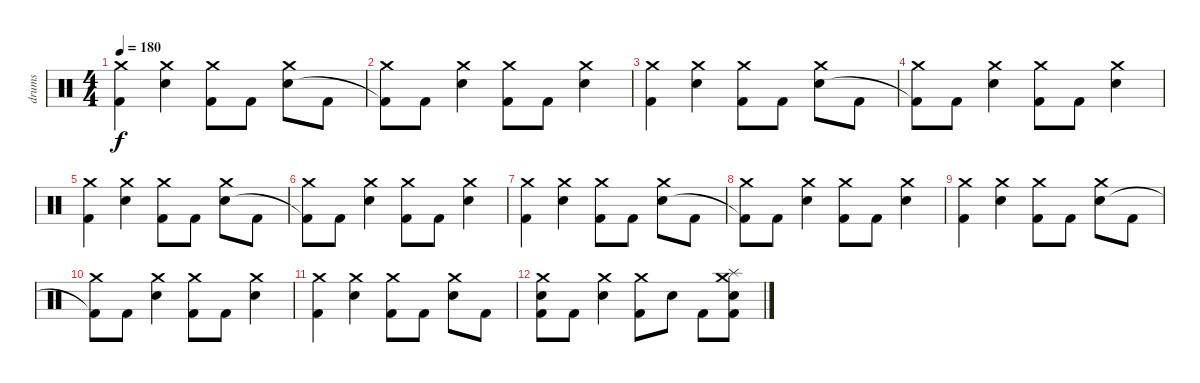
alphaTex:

\track ("drums" "drums") {instrument percussion}
\staff {score}
\articulation defaults
\ts (4 4)
\tempo 180
\clef neutral
\ks c
("Crash medium (hit)" "Kick (hit) 2").4{dy f} ("Crash medium (hit)" "Electric Snare (hit)").4 ("Crash medium (hit)" "Kick (hit) 2").8 "Kick (hit) 2".8 ("Crash medium (hit)" "Electric Snare (hit)").8 "Kick (hit) 2".8 |
("Crash medium (hit)" "Kick (hit) 2"{t}).8 "Kick (hit) 2".8 ("Crash medium (hit)" "Electric Snare (hit)").4 ("Crash medium (hit)" "Kick (hit) 2").8 "Kick (hit) 2".8 ("Crash medium (hit)" "Electric Snare (hit)").4 |
("Crash medium (hit)" "Kick (hit) 2").4 ("Crash medium (hit)" "Electric Snare (hit)").4 ("Crash medium (hit)" "Kick (hit) 2").8 "Kick (hit) 2".8 ("Crash medium (hit)" "Electric Snare (hit)").8 "Kick (hit) 2".8 |
("Crash medium (hit)" "Kick (hit) 2"{t}).8 "Kick (hit) 2".8 ("Crash medium (hit)" "Electric Snare (hit)").4 ("Crash medium (hit)" "Kick (hit) 2").8 "Kick (hit) 2".8 ("Crash medium (hit)" "Electric Snare (hit)").4 |
("Crash medium (hit)" "Kick (hit) 2").4 ("Crash medium (hit)" "Electric Snare (hit)").4 ("Crash medium (hit)" "Kick (hit) 2").8 "Kick (hit) 2".8 ("Crash medium (hit)" "Electric Snare (hit)").8 "Kick (hit) 2".8 |
("Crash medium (hit)" "Kick (hit) 2"{t}).8 "Kick (hit) 2".8 ("Crash medium (hit)" "Electric Snare (hit)").4 ("Crash medium (hit)" "Kick (hit) 2").8 "Kick (hit) 2".8 ("Crash medium (hit)" "Electric Snare (hit)").4 |
("Crash medium (hit)" "Kick (hit) 2").4 ("Crash medium (hit)" "Electric Snare (hit)").4 ("Crash medium (hit)" "Kick (hit) 2").8 "Kick (hit) 2".8 ("Crash medium (hit)" "Electric Snare (hit)").8 "Kick (hit) 2".8 |
("Crash medium (hit)" "Kick (hit) 2"{t}).8 "Kick (hit) 2".8 ("Crash medium (hit)" "Electric Snare (hit)").4 ("Crash medium (hit)" "Kick (hit) 2").8 "Kick (hit) 2".8 ("Crash medium (hit)" "Electric Snare (hit)").4 |
("Crash medium (hit)" "Kick (hit) 2").4 ("Crash medium (hit)" "Electric Snare (hit)").4 ("Crash medium (hit)" "Kick (hit) 2").8 "Kick (hit) 2".8 ("Crash medium (hit)" "Electric Snare (hit)").8 "Kick (hit) 2".8 |
("Crash medium (hit)" "Kick (hit) 2"{t}).8 "Kick (hit) 2".8 ("Crash medium (hit)" "Electric Snare (hit)").4 ("Crash medium (hit)" "Kick (hit) 2").8 "Kick (hit) 2".8 ("Crash medium (hit)" "Electric Snare (hit)").4 |
("Crash medium (hit)" "Kick (hit) 2").4 ("Crash medium (hit)" "Electric Snare (hit)").4 ("Crash medium (hit)" "Kick (hit) 2").8 "Kick (hit) 2".8 ("Crash medium (hit)" "Electric Snare (hit)").8 "Kick (hit) 2".8 |
("Crash medium (hit)" "Electric Snare (hit)" "Kick (hit) 2").8 "Kick (hit) 2".8 ("Crash medium (hit)" "Electric Snare (hit)").4 ("Crash medium (hit)" "Kick (hit) 2").8 "Electric Snare (hit)".8 "Kick (hit) 2".8 ("Splash (hit)" "Crash medium (hit)" "Electric Snare (hit)" "Kick (hit) 2").8
